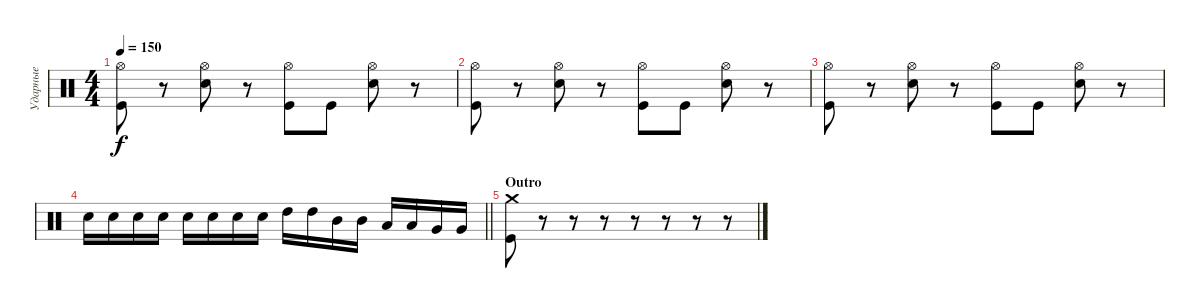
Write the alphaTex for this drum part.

\track ("Ударные" "Ударные") {instrument percussion}
\staff {score}
\articulation defaults
\ts (4 4)
\tempo 150
\clef neutral
\ks c
("Hi-Hat (open)" "Kick (hit)").8{dy f} r.8 ("Hi-Hat (open)" "Electric Snare (hit)").8 r.8 ("Hi-Hat (open)" "Kick (hit)").8 "Kick (hit)".8 ("Hi-Hat (open)" "Electric Snare (hit)").8 r.8 |
("Hi-Hat (open)" "Kick (hit)").8 r.8 ("Hi-Hat (open)" "Electric Snare (hit)").8 r.8 ("Hi-Hat (open)" "Kick (hit)").8 "Kick (hit)".8 ("Hi-Hat (open)" "Electric Snare (hit)").8 r.8 |
("Hi-Hat (open)" "Kick (hit)").8 r.8 ("Hi-Hat (open)" "Electric Snare (hit)").8 r.8 ("Hi-Hat (open)" "Kick (hit)").8 "Kick (hit)".8 ("Hi-Hat (open)" "Electric Snare (hit)").8 r.8 |
\barLineRight lightlight "Electric Snare (hit)".16 "Electric Snare (hit)".16 "Electric Snare (hit)".16 "Electric Snare (hit)".16 "Electric Snare (hit)".16 "Electric Snare (hit)".16 "Electric Snare (hit)".16 "Electric Snare (hit)".16 "High Tom (hit)".16 "High Tom (hit)".16 "Mid Tom (hit)".16 "Mid Tom (hit)".16 "Low Tom (hit)".16 "Low Tom (hit)".16 "Very Low Tom (hit)".16 "Very Low Tom (hit)".16
|
\section ("" "Outro")
("Crash medium (hit)" "Kick (hit)").8 r.8 r.8 r.8 r.8 r.8 r.8 r.8
